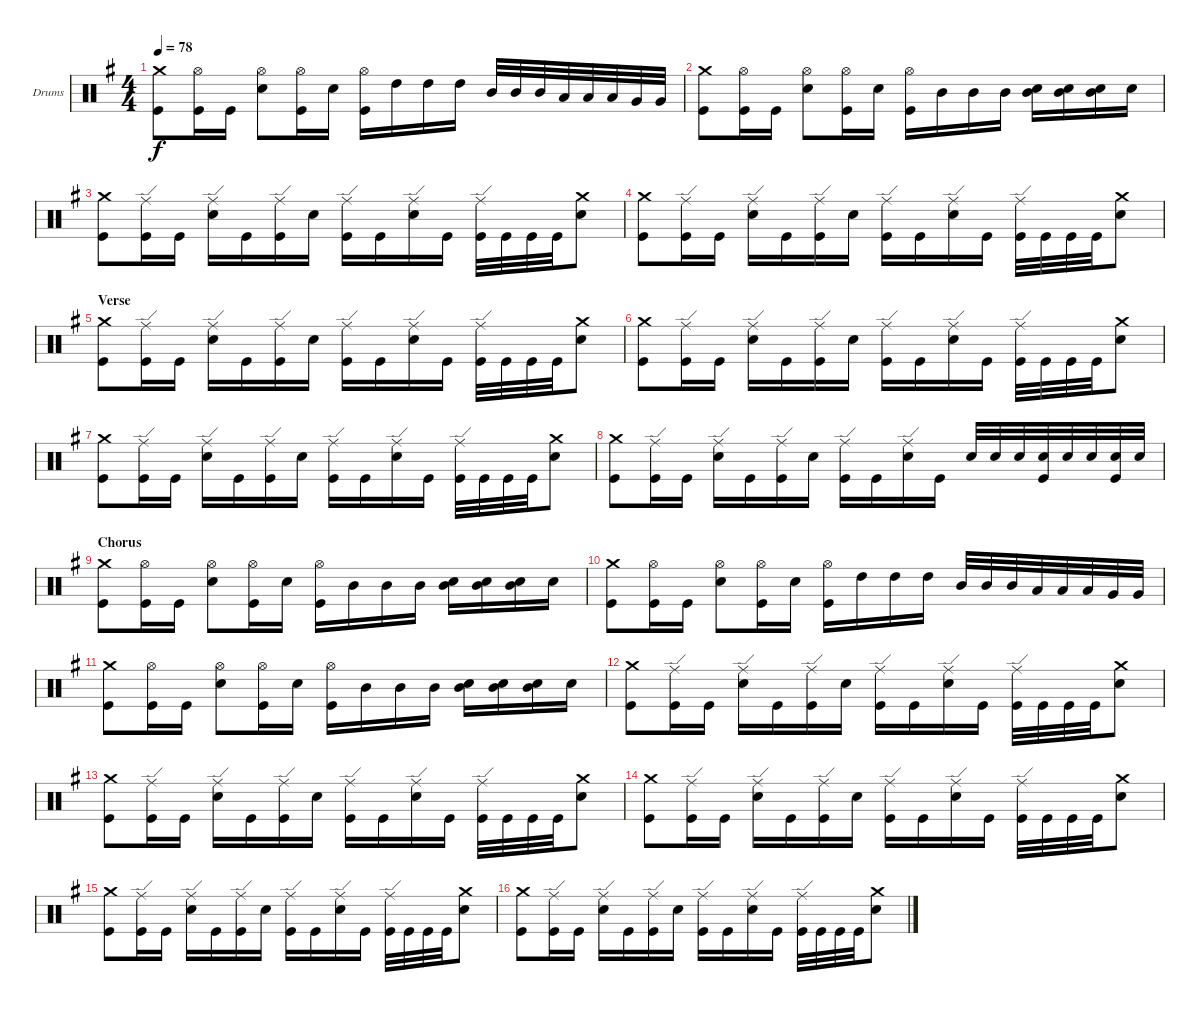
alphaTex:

\defaultSystemsLayout 4
\bracketExtendMode groupsimilarinstruments
\firstSystemTrackNameOrientation horizontal
\otherSystemsTrackNameOrientation horizontal
\track ("Drumkit" "Drums") {instrument percussion}
\staff {score}
\articulation defaults
\ts (4 4)
\tempo 78
\clef neutral
\ks g
("Crash medium (hit)" "Kick (hit)").8{dy f} ("Hi-Hat (open)" "Kick (hit)").16 "Kick (hit)".16 ("Hi-Hat (open)" "Snare (hit) 2").8 ("Hi-Hat (open)" "Kick (hit)").16 "Snare (hit) 2".16 ("Hi-Hat (open)" "Kick (hit)").16 "High Tom (hit)".16 "High Tom (hit)".16 "High Tom (hit)".16 "Mid Tom (hit)".32 "Mid Tom (hit)".32 "Mid Tom (hit)".32 "Low Tom (hit)".32 "Low Tom (hit)".32 "Low Tom (hit)".32 "Very Low Tom (hit)".32 "Very Low Tom (hit)".32 |
("Crash medium (hit)" "Kick (hit)").8 ("Hi-Hat (open)" "Kick (hit)").16 "Kick (hit)".16 ("Hi-Hat (open)" "Snare (hit) 2").8 ("Hi-Hat (open)" "Kick (hit)").16 "Snare (hit) 2".16 ("Hi-Hat (open)" "Kick (hit)").16 "Mid Tom (hit)".16 "Mid Tom (hit)".16 "Mid Tom (hit)".16 ("Snare (hit) 2" "Mid Tom (hit)").16 ("Snare (hit) 2" "Mid Tom (hit)").16 ("Snare (hit) 2" "Mid Tom (hit)").16 "Snare (hit) 2".16 |
("Crash medium (hit)" "Kick (hit)").8 ("Ride (edge)" "Kick (hit)").16 "Kick (hit)".16 ("Ride (edge)" "Snare (hit) 2").16 "Kick (hit)".16 ("Ride (edge)" "Kick (hit)").16 "Snare (hit) 2".16 ("Ride (edge)" "Kick (hit)").16 "Kick (hit)".16 ("Ride (edge)" "Snare (hit) 2").16 "Kick (hit)".16 ("Ride (edge)" "Kick (hit)").32 "Kick (hit)".32 "Kick (hit)".32 "Kick (hit)".32 ("Crash medium (hit)" "Snare (hit) 2").8 |
("Crash medium (hit)" "Kick (hit)").8 ("Ride (edge)" "Kick (hit)").16 "Kick (hit)".16 ("Ride (edge)" "Snare (hit) 2").16 "Kick (hit)".16 ("Ride (edge)" "Kick (hit)").16 "Snare (hit) 2".16 ("Ride (edge)" "Kick (hit)").16 "Kick (hit)".16 ("Ride (edge)" "Snare (hit) 2").16 "Kick (hit)".16 ("Ride (edge)" "Kick (hit)").32 "Kick (hit)".32 "Kick (hit)".32 "Kick (hit)".32 ("Crash medium (hit)" "Snare (hit) 2").8 |
\section ("" "Verse")
("Crash medium (hit)" "Kick (hit)").8 ("Ride (edge)" "Kick (hit)").16 "Kick (hit)".16 ("Ride (edge)" "Snare (hit) 2").16 "Kick (hit)".16 ("Ride (edge)" "Kick (hit)").16 "Snare (hit) 2".16 ("Ride (edge)" "Kick (hit)").16 "Kick (hit)".16 ("Ride (edge)" "Snare (hit) 2").16 "Kick (hit)".16 ("Ride (edge)" "Kick (hit)").32 "Kick (hit)".32 "Kick (hit)".32 "Kick (hit)".32 ("Crash medium (hit)" "Snare (hit) 2").8 |
("Crash medium (hit)" "Kick (hit)").8 ("Ride (edge)" "Kick (hit)").16 "Kick (hit)".16 ("Ride (edge)" "Snare (hit) 2").16 "Kick (hit)".16 ("Ride (edge)" "Kick (hit)").16 "Snare (hit) 2".16 ("Ride (edge)" "Kick (hit)").16 "Kick (hit)".16 ("Ride (edge)" "Snare (hit) 2").16 "Kick (hit)".16 ("Ride (edge)" "Kick (hit)").32 "Kick (hit)".32 "Kick (hit)".32 "Kick (hit)".32 ("Crash medium (hit)" "Snare (hit) 2").8 |
("Crash medium (hit)" "Kick (hit)").8 ("Ride (edge)" "Kick (hit)").16 "Kick (hit)".16 ("Ride (edge)" "Snare (hit) 2").16 "Kick (hit)".16 ("Ride (edge)" "Kick (hit)").16 "Snare (hit) 2".16 ("Ride (edge)" "Kick (hit)").16 "Kick (hit)".16 ("Ride (edge)" "Snare (hit) 2").16 "Kick (hit)".16 ("Ride (edge)" "Kick (hit)").32 "Kick (hit)".32 "Kick (hit)".32 "Kick (hit)".32 ("Crash medium (hit)" "Snare (hit) 2").8 |
("Crash medium (hit)" "Kick (hit)").8 ("Ride (edge)" "Kick (hit)").16 "Kick (hit)".16 ("Ride (edge)" "Snare (hit) 2").16 "Kick (hit)".16 ("Ride (edge)" "Kick (hit)").16 "Snare (hit) 2".16 ("Ride (edge)" "Kick (hit)").16 "Kick (hit)".16 ("Ride (edge)" "Snare (hit) 2").16 "Kick (hit)".16 "Snare (hit) 2".32 "Snare (hit) 2".32 "Snare (hit) 2".32 ("Snare (hit) 2" "Kick (hit)").32 "Snare (hit) 2".32 "Snare (hit) 2".32 ("Snare (hit) 2" "Kick (hit)").32 "Snare (hit) 2".32 |
\section ("" "Chorus")
("Crash medium (hit)" "Kick (hit)").8 ("Hi-Hat (open)" "Kick (hit)").16 "Kick (hit)".16 ("Hi-Hat (open)" "Snare (hit) 2").8 ("Hi-Hat (open)" "Kick (hit)").16 "Snare (hit) 2".16 ("Hi-Hat (open)" "Kick (hit)").16 "Mid Tom (hit)".16 "Mid Tom (hit)".16 "Mid Tom (hit)".16 ("Snare (hit) 2" "Mid Tom (hit)").16 ("Snare (hit) 2" "Mid Tom (hit)").16 ("Snare (hit) 2" "Mid Tom (hit)").16 "Snare (hit) 2".16 |
("Crash medium (hit)" "Kick (hit)").8 ("Hi-Hat (open)" "Kick (hit)").16 "Kick (hit)".16 ("Hi-Hat (open)" "Snare (hit) 2").8 ("Hi-Hat (open)" "Kick (hit)").16 "Snare (hit) 2".16 ("Hi-Hat (open)" "Kick (hit)").16 "High Tom (hit)".16 "High Tom (hit)".16 "High Tom (hit)".16 "Mid Tom (hit)".32 "Mid Tom (hit)".32 "Mid Tom (hit)".32 "Low Tom (hit)".32 "Low Tom (hit)".32 "Low Tom (hit)".32 "Very Low Tom (hit)".32 "Very Low Tom (hit)".32 |
("Crash medium (hit)" "Kick (hit)").8 ("Hi-Hat (open)" "Kick (hit)").16 "Kick (hit)".16 ("Hi-Hat (open)" "Snare (hit) 2").8 ("Hi-Hat (open)" "Kick (hit)").16 "Snare (hit) 2".16 ("Hi-Hat (open)" "Kick (hit)").16 "Mid Tom (hit)".16 "Mid Tom (hit)".16 "Mid Tom (hit)".16 ("Snare (hit) 2" "Mid Tom (hit)").16 ("Snare (hit) 2" "Mid Tom (hit)").16 ("Snare (hit) 2" "Mid Tom (hit)").16 "Snare (hit) 2".16 |
("Crash medium (hit)" "Kick (hit)").8 ("Ride (edge)" "Kick (hit)").16 "Kick (hit)".16 ("Ride (edge)" "Snare (hit) 2").16 "Kick (hit)".16 ("Ride (edge)" "Kick (hit)").16 "Snare (hit) 2".16 ("Ride (edge)" "Kick (hit)").16 "Kick (hit)".16 ("Ride (edge)" "Snare (hit) 2").16 "Kick (hit)".16 ("Ride (edge)" "Kick (hit)").32 "Kick (hit)".32 "Kick (hit)".32 "Kick (hit)".32 ("Crash medium (hit)" "Snare (hit) 2").8 |
("Crash medium (hit)" "Kick (hit)").8 ("Ride (edge)" "Kick (hit)").16 "Kick (hit)".16 ("Ride (edge)" "Snare (hit) 2").16 "Kick (hit)".16 ("Ride (edge)" "Kick (hit)").16 "Snare (hit) 2".16 ("Ride (edge)" "Kick (hit)").16 "Kick (hit)".16 ("Ride (edge)" "Snare (hit) 2").16 "Kick (hit)".16 ("Ride (edge)" "Kick (hit)").32 "Kick (hit)".32 "Kick (hit)".32 "Kick (hit)".32 ("Crash medium (hit)" "Snare (hit) 2").8 |
("Crash medium (hit)" "Kick (hit)").8 ("Ride (edge)" "Kick (hit)").16 "Kick (hit)".16 ("Ride (edge)" "Snare (hit) 2").16 "Kick (hit)".16 ("Ride (edge)" "Kick (hit)").16 "Snare (hit) 2".16 ("Ride (edge)" "Kick (hit)").16 "Kick (hit)".16 ("Ride (edge)" "Snare (hit) 2").16 "Kick (hit)".16 ("Ride (edge)" "Kick (hit)").32 "Kick (hit)".32 "Kick (hit)".32 "Kick (hit)".32 ("Crash medium (hit)" "Snare (hit) 2").8 |
("Crash medium (hit)" "Kick (hit)").8 ("Ride (edge)" "Kick (hit)").16 "Kick (hit)".16 ("Ride (edge)" "Snare (hit) 2").16 "Kick (hit)".16 ("Ride (edge)" "Kick (hit)").16 "Snare (hit) 2".16 ("Ride (edge)" "Kick (hit)").16 "Kick (hit)".16 ("Ride (edge)" "Snare (hit) 2").16 "Kick (hit)".16 ("Ride (edge)" "Kick (hit)").32 "Kick (hit)".32 "Kick (hit)".32 "Kick (hit)".32 ("Crash medium (hit)" "Snare (hit) 2").8 |
("Crash medium (hit)" "Kick (hit)").8 ("Ride (edge)" "Kick (hit)").16 "Kick (hit)".16 ("Ride (edge)" "Snare (hit) 2").16 "Kick (hit)".16 ("Ride (edge)" "Kick (hit)").16 "Snare (hit) 2".16 ("Ride (edge)" "Kick (hit)").16 "Kick (hit)".16 ("Ride (edge)" "Snare (hit) 2").16 "Kick (hit)".16 ("Ride (edge)" "Kick (hit)").32 "Kick (hit)".32 "Kick (hit)".32 "Kick (hit)".32 ("Crash medium (hit)" "Snare (hit) 2").8
